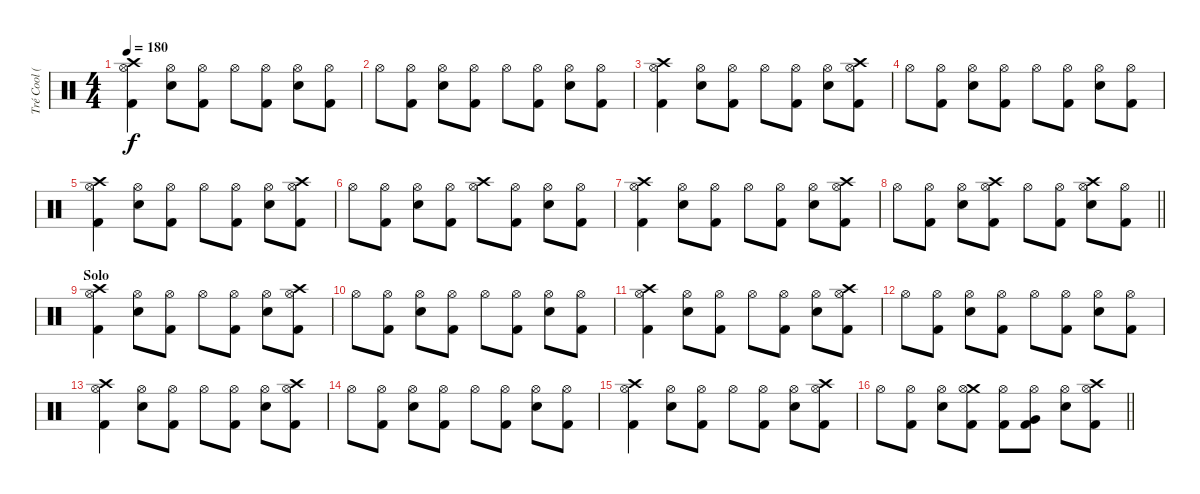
\track ("Tré Cool (Drums)" "Tré Cool (") {instrument percussion}
\staff {score}
\articulation defaults
\ts (4 4)
\tempo 180
\clef neutral
\ks c
("Crash high (hit)" "Hi-Hat (open)" "Kick (hit) 2").4{dy f} ("Hi-Hat (open)" "Electric Snare (hit)").8 ("Hi-Hat (open)" "Kick (hit) 2").8 "Hi-Hat (open)".8 ("Hi-Hat (open)" "Kick (hit) 2").8 ("Hi-Hat (open)" "Electric Snare (hit)").8 ("Hi-Hat (open)" "Kick (hit) 2").8 |
"Hi-Hat (open)".8 ("Hi-Hat (open)" "Kick (hit) 2").8 ("Hi-Hat (open)" "Electric Snare (hit)").8 ("Hi-Hat (open)" "Kick (hit) 2").8 "Hi-Hat (open)".8 ("Hi-Hat (open)" "Kick (hit) 2").8 ("Hi-Hat (open)" "Electric Snare (hit)").8 ("Hi-Hat (open)" "Kick (hit) 2").8 |
("Crash high (hit)" "Hi-Hat (open)" "Kick (hit) 2").4 ("Hi-Hat (open)" "Electric Snare (hit)").8 ("Hi-Hat (open)" "Kick (hit) 2").8 "Hi-Hat (open)".8 ("Hi-Hat (open)" "Kick (hit) 2").8 ("Hi-Hat (open)" "Electric Snare (hit)").8 ("Crash high (hit)" "Hi-Hat (open)" "Kick (hit) 2").8 |
"Hi-Hat (open)".8 ("Hi-Hat (open)" "Kick (hit) 2").8 ("Hi-Hat (open)" "Electric Snare (hit)").8 ("Hi-Hat (open)" "Kick (hit) 2").8 "Hi-Hat (open)".8 ("Hi-Hat (open)" "Kick (hit) 2").8 ("Hi-Hat (open)" "Electric Snare (hit)").8 ("Hi-Hat (open)" "Kick (hit) 2").8 |
("Crash high (hit)" "Hi-Hat (open)" "Kick (hit) 2").4 ("Hi-Hat (open)" "Electric Snare (hit)").8 ("Hi-Hat (open)" "Kick (hit) 2").8 "Hi-Hat (open)".8 ("Hi-Hat (open)" "Kick (hit) 2").8 ("Hi-Hat (open)" "Electric Snare (hit)").8 ("Crash high (hit)" "Hi-Hat (open)" "Kick (hit) 2").8 |
"Hi-Hat (open)".8 ("Hi-Hat (open)" "Kick (hit) 2").8 ("Hi-Hat (open)" "Electric Snare (hit)").8 ("Hi-Hat (open)" "Kick (hit) 2").8 ("Crash high (hit)" "Hi-Hat (open)").8 ("Hi-Hat (open)" "Kick (hit) 2").8 ("Hi-Hat (open)" "Electric Snare (hit)").8 ("Hi-Hat (open)" "Kick (hit) 2").8 |
("Crash high (hit)" "Hi-Hat (open)" "Kick (hit) 2").4 ("Hi-Hat (open)" "Electric Snare (hit)").8 ("Hi-Hat (open)" "Kick (hit) 2").8 "Hi-Hat (open)".8 ("Hi-Hat (open)" "Kick (hit) 2").8 ("Hi-Hat (open)" "Electric Snare (hit)").8 ("Crash high (hit)" "Hi-Hat (open)" "Kick (hit) 2").8 |
\barLineRight lightlight "Hi-Hat (open)".8
("Hi-Hat (open)" "Kick (hit) 2").8 ("Hi-Hat (open)" "Electric Snare (hit)").8 ("Crash high (hit)" "Hi-Hat (open)" "Kick (hit) 2").8 "Hi-Hat (open)".8 ("Hi-Hat (open)" "Kick (hit) 2").8 ("Crash high (hit)" "Hi-Hat (open)" "Electric Snare (hit)").8 ("Hi-Hat (open)" "Kick (hit) 2").8 |
\section ("" "Solo")
("Crash high (hit)" "Hi-Hat (open)" "Kick (hit) 2").4 ("Hi-Hat (open)" "Electric Snare (hit)").8 ("Hi-Hat (open)" "Kick (hit) 2").8 "Hi-Hat (open)".8 ("Hi-Hat (open)" "Kick (hit) 2").8 ("Hi-Hat (open)" "Electric Snare (hit)").8 ("Crash high (hit)" "Hi-Hat (open)" "Kick (hit) 2").8 |
"Hi-Hat (open)".8 ("Hi-Hat (open)" "Kick (hit) 2").8 ("Hi-Hat (open)" "Electric Snare (hit)").8 ("Hi-Hat (open)" "Kick (hit) 2").8 "Hi-Hat (open)".8 ("Hi-Hat (open)" "Kick (hit) 2").8 ("Hi-Hat (open)" "Electric Snare (hit)").8 ("Hi-Hat (open)" "Kick (hit) 2").8 |
("Crash high (hit)" "Hi-Hat (open)" "Kick (hit) 2").4 ("Hi-Hat (open)" "Electric Snare (hit)").8 ("Hi-Hat (open)" "Kick (hit) 2").8 "Hi-Hat (open)".8 ("Hi-Hat (open)" "Kick (hit) 2").8 ("Hi-Hat (open)" "Electric Snare (hit)").8 ("Crash high (hit)" "Hi-Hat (open)" "Kick (hit) 2").8 |
"Hi-Hat (open)".8 ("Hi-Hat (open)" "Kick (hit) 2").8 ("Hi-Hat (open)" "Electric Snare (hit)").8 ("Hi-Hat (open)" "Kick (hit) 2").8 "Hi-Hat (open)".8 ("Hi-Hat (open)" "Kick (hit) 2").8 ("Hi-Hat (open)" "Electric Snare (hit)").8 ("Hi-Hat (open)" "Kick (hit) 2").8 |
("Crash high (hit)" "Hi-Hat (open)" "Kick (hit) 2").4 ("Hi-Hat (open)" "Electric Snare (hit)").8 ("Hi-Hat (open)" "Kick (hit) 2").8 "Hi-Hat (open)".8 ("Hi-Hat (open)" "Kick (hit) 2").8 ("Hi-Hat (open)" "Electric Snare (hit)").8 ("Crash high (hit)" "Hi-Hat (open)" "Kick (hit) 2").8 |
"Hi-Hat (open)".8 ("Hi-Hat (open)" "Kick (hit) 2").8 ("Hi-Hat (open)" "Electric Snare (hit)").8 ("Hi-Hat (open)" "Kick (hit) 2").8 "Hi-Hat (open)".8 ("Hi-Hat (open)" "Kick (hit) 2").8 ("Hi-Hat (open)" "Electric Snare (hit)").8 ("Hi-Hat (open)" "Kick (hit) 2").8 |
("Crash high (hit)" "Hi-Hat (open)" "Kick (hit) 2").4 ("Hi-Hat (open)" "Electric Snare (hit)").8 ("Hi-Hat (open)" "Kick (hit) 2").8 "Hi-Hat (open)".8 ("Hi-Hat (open)" "Kick (hit) 2").8 ("Hi-Hat (open)" "Electric Snare (hit)").8 ("Crash high (hit)" "Hi-Hat (open)" "Kick (hit) 2").8 |
\barLineRight lightlight "Hi-Hat (open)".8
("Hi-Hat (open)" "Kick (hit) 2").8 ("Hi-Hat (open)" "Electric Snare (hit)").8 ("Crash medium (hit)" "Hi-Hat (open)" "Kick (hit) 2").8 ("Hi-Hat (open)" "Kick (hit) 2").8 ("Hi-Hat (open)" "Very Low Tom (hit)" "Kick (hit) 2").8 ("Hi-Hat (open)" "Electric Snare (hit)").8 ("Crash high (hit)" "Hi-Hat (open)" "Kick (hit) 2").8
